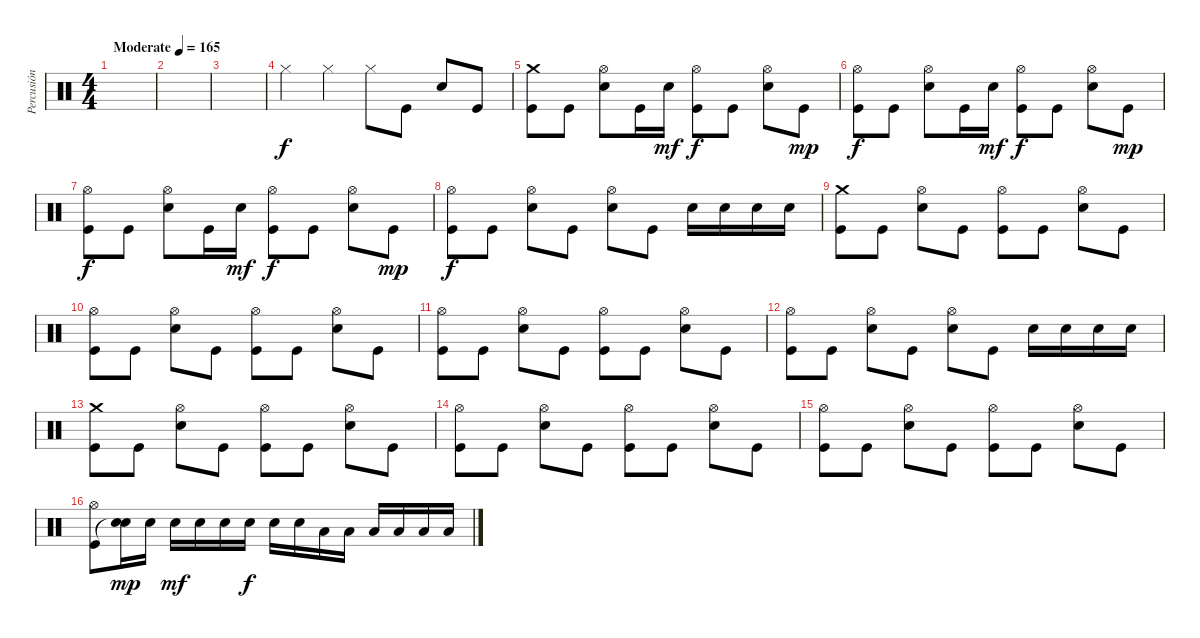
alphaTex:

\track ("Percusión" "Percusión") {instrument percussion}
\staff {score}
\articulation defaults
\ts (4 4)
\tempo (165 "Moderate")
\clef neutral
\ks c
|
|
|
"Hi-Hat (closed)".4 "Hi-Hat (closed)".4 "Hi-Hat (closed)".8 "Kick (hit)".8 "Electric Snare (hit)".8 "Kick (hit)".8 |
("Crash medium (hit)" "Kick (hit)").8 "Kick (hit)".8 ("Hi-Hat (open)" "Electric Snare (hit)").8 "Kick (hit)".16 "Electric Snare (hit)".16{dy mf} ("Hi-Hat (open)" "Kick (hit)").8{dy f} "Kick (hit)".8 ("Hi-Hat (open)" "Electric Snare (hit)").8 "Kick (hit)".8{dy mp} |
("Hi-Hat (open)" "Kick (hit)").8{dy f} "Kick (hit)".8 ("Hi-Hat (open)" "Electric Snare (hit)").8 "Kick (hit)".16 "Electric Snare (hit)".16{dy mf} ("Hi-Hat (open)" "Kick (hit)").8{dy f} "Kick (hit)".8 ("Hi-Hat (open)" "Electric Snare (hit)").8 "Kick (hit)".8{dy mp} |
("Hi-Hat (open)" "Kick (hit)").8{dy f} "Kick (hit)".8 ("Hi-Hat (open)" "Electric Snare (hit)").8 "Kick (hit)".16 "Electric Snare (hit)".16{dy mf} ("Hi-Hat (open)" "Kick (hit)").8{dy f} "Kick (hit)".8 ("Hi-Hat (open)" "Electric Snare (hit)").8 "Kick (hit)".8{dy mp} |
("Hi-Hat (open)" "Kick (hit)").8{dy f} "Kick (hit)".8 ("Hi-Hat (open)" "Electric Snare (hit)").8 "Kick (hit)".8 ("Hi-Hat (open)" "Electric Snare (hit)").8 "Kick (hit)".8 "Electric Snare (hit)".16 "Electric Snare (hit)".16 "Electric Snare (hit)".16 "Electric Snare (hit)".16 |
("Crash medium (hit)" "Kick (hit)").8 "Kick (hit)".8 ("Hi-Hat (open)" "Electric Snare (hit)").8 "Kick (hit)".8 ("Hi-Hat (open)" "Kick (hit)").8 "Kick (hit)".8 ("Hi-Hat (open)" "Electric Snare (hit)").8 "Kick (hit)".8 |
("Hi-Hat (open)" "Kick (hit)").8 "Kick (hit)".8 ("Hi-Hat (open)" "Electric Snare (hit)").8 "Kick (hit)".8 ("Hi-Hat (open)" "Kick (hit)").8 "Kick (hit)".8 ("Hi-Hat (open)" "Electric Snare (hit)").8 "Kick (hit)".8 |
("Hi-Hat (open)" "Kick (hit)").8 "Kick (hit)".8 ("Hi-Hat (open)" "Electric Snare (hit)").8 "Kick (hit)".8 ("Hi-Hat (open)" "Kick (hit)").8 "Kick (hit)".8 ("Hi-Hat (open)" "Electric Snare (hit)").8 "Kick (hit)".8 |
("Hi-Hat (open)" "Kick (hit)").8 "Kick (hit)".8 ("Hi-Hat (open)" "Electric Snare (hit)").8 "Kick (hit)".8 ("Hi-Hat (open)" "Electric Snare (hit)").8 "Kick (hit)".8 "Electric Snare (hit)".16 "Electric Snare (hit)".16 "Electric Snare (hit)".16 "Electric Snare (hit)".16 |
("Crash medium (hit)" "Kick (hit)").8 "Kick (hit)".8 ("Hi-Hat (open)" "Electric Snare (hit)").8 "Kick (hit)".8 ("Hi-Hat (open)" "Kick (hit)").8 "Kick (hit)".8 ("Hi-Hat (open)" "Electric Snare (hit)").8 "Kick (hit)".8 |
("Hi-Hat (open)" "Kick (hit)").8 "Kick (hit)".8 ("Hi-Hat (open)" "Electric Snare (hit)").8 "Kick (hit)".8 ("Hi-Hat (open)" "Kick (hit)").8 "Kick (hit)".8 ("Hi-Hat (open)" "Electric Snare (hit)").8 "Kick (hit)".8 |
("Hi-Hat (open)" "Kick (hit)").8 "Kick (hit)".8 ("Hi-Hat (open)" "Electric Snare (hit)").8 "Kick (hit)".8 ("Hi-Hat (open)" "Kick (hit)").8 "Kick (hit)".8 ("Hi-Hat (open)" "Electric Snare (hit)").8 "Kick (hit)".8 |
("Hi-Hat (open)" "Kick (hit)").8 ("Electric Snare (hit)" "Snare (hit)"{t}).16{dy mp} "Electric Snare (hit)".16 "Electric Snare (hit)".16{dy mf} "Electric Snare (hit)".16 "Electric Snare (hit)".16 "Electric Snare (hit)".16{dy f} "Electric Snare (hit)".16 "Electric Snare (hit)".16 "Low Tom (hit)".16 "Low Tom (hit)".16 "Low Tom (hit)".16 "Low Floor Tom (hit)".16 "Low Floor Tom (hit)".16 "Low Floor Tom (hit)".16
